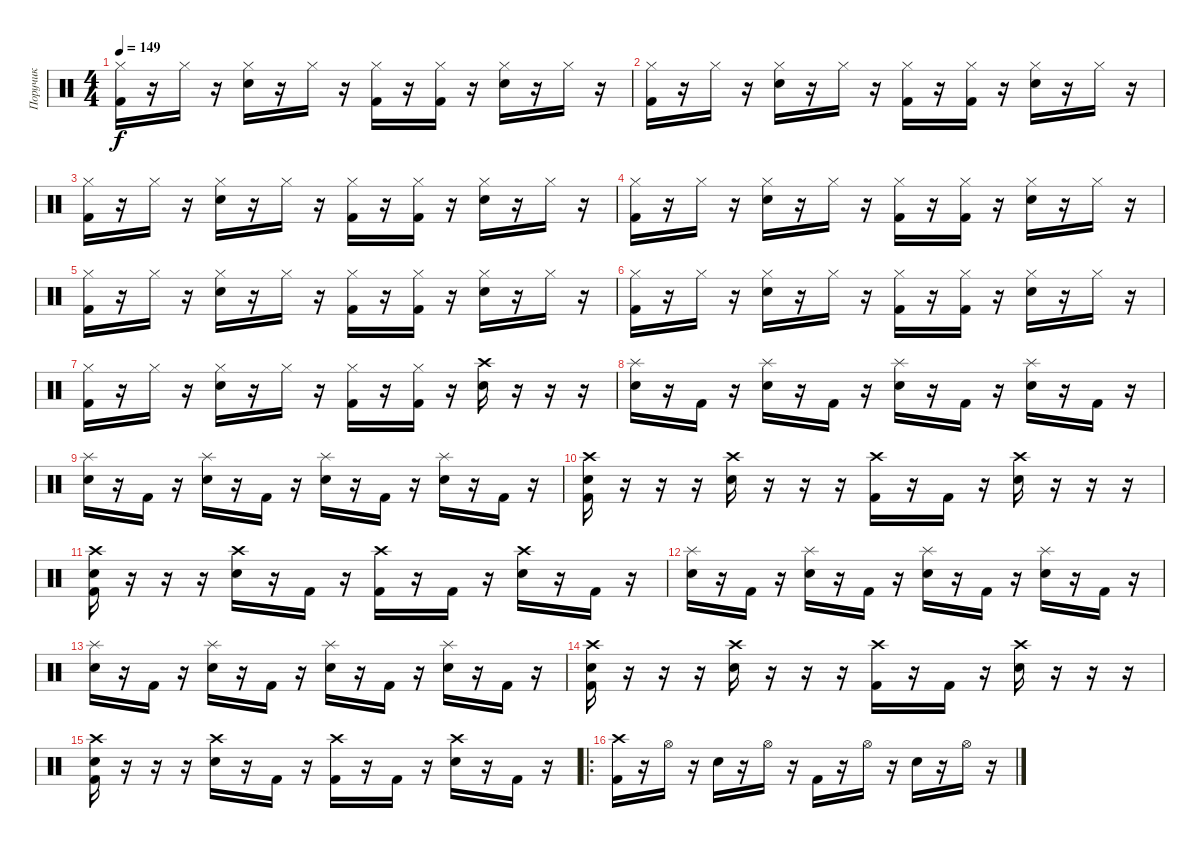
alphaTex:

\track ("Поручик" "Поручик") {instrument percussion}
\staff {score}
\articulation defaults
\ts (4 4)
\tempo 149
\clef neutral
\ks c
("Hi-Hat (closed)" "Kick (hit) 2").16{dy f} r.16 "Hi-Hat (closed)".16 r.16 ("Hi-Hat (closed)" "Snare (hit) 2").16 r.16 "Hi-Hat (closed)".16 r.16 ("Hi-Hat (closed)" "Kick (hit) 2").16 r.16 ("Hi-Hat (closed)" "Kick (hit) 2").16 r.16 ("Hi-Hat (closed)" "Snare (hit) 2").16 r.16 "Hi-Hat (closed)".16 r.16 |
("Hi-Hat (closed)" "Kick (hit) 2").16 r.16 "Hi-Hat (closed)".16 r.16 ("Hi-Hat (closed)" "Snare (hit) 2").16 r.16 "Hi-Hat (closed)".16 r.16 ("Hi-Hat (closed)" "Kick (hit) 2").16 r.16 ("Hi-Hat (closed)" "Kick (hit) 2").16 r.16 ("Hi-Hat (closed)" "Snare (hit) 2").16 r.16 "Hi-Hat (closed)".16 r.16 |
("Hi-Hat (closed)" "Kick (hit) 2").16 r.16 "Hi-Hat (closed)".16 r.16 ("Hi-Hat (closed)" "Snare (hit) 2").16 r.16 "Hi-Hat (closed)".16 r.16 ("Hi-Hat (closed)" "Kick (hit) 2").16 r.16 ("Hi-Hat (closed)" "Kick (hit) 2").16 r.16 ("Hi-Hat (closed)" "Snare (hit) 2").16 r.16 "Hi-Hat (closed)".16 r.16 |
("Hi-Hat (closed)" "Kick (hit) 2").16 r.16 "Hi-Hat (closed)".16 r.16 ("Hi-Hat (closed)" "Snare (hit) 2").16 r.16 "Hi-Hat (closed)".16 r.16 ("Hi-Hat (closed)" "Kick (hit) 2").16 r.16 ("Hi-Hat (closed)" "Kick (hit) 2").16 r.16 ("Hi-Hat (closed)" "Snare (hit) 2").16 r.16 "Hi-Hat (closed)".16 r.16 |
("Hi-Hat (closed)" "Kick (hit) 2").16 r.16 "Hi-Hat (closed)".16 r.16 ("Hi-Hat (closed)" "Snare (hit) 2").16 r.16 "Hi-Hat (closed)".16 r.16 ("Hi-Hat (closed)" "Kick (hit) 2").16 r.16 ("Hi-Hat (closed)" "Kick (hit) 2").16 r.16 ("Hi-Hat (closed)" "Snare (hit) 2").16 r.16 "Hi-Hat (closed)".16 r.16 |
("Hi-Hat (closed)" "Kick (hit) 2").16 r.16 "Hi-Hat (closed)".16 r.16 ("Hi-Hat (closed)" "Snare (hit) 2").16 r.16 "Hi-Hat (closed)".16 r.16 ("Hi-Hat (closed)" "Kick (hit) 2").16 r.16 ("Hi-Hat (closed)" "Kick (hit) 2").16 r.16 ("Hi-Hat (closed)" "Snare (hit) 2").16 r.16 "Hi-Hat (closed)".16 r.16 |
("Hi-Hat (closed)" "Kick (hit) 2").16 r.16 "Hi-Hat (closed)".16 r.16 ("Hi-Hat (closed)" "Snare (hit) 2").16 r.16 "Hi-Hat (closed)".16 r.16 ("Hi-Hat (closed)" "Kick (hit) 2").16 r.16 ("Hi-Hat (closed)" "Kick (hit) 2").16 r.16 ("Crash high (hit)" "Snare (hit) 2").16 r.16 r.16 r.16 |
("Splash (hit)" "Snare (hit) 2").16 r.16 "Kick (hit) 2".16 r.16 ("Splash (hit)" "Snare (hit) 2").16 r.16 "Kick (hit) 2".16 r.16 ("Splash (hit)" "Snare (hit) 2").16 r.16 "Kick (hit) 2".16 r.16 ("Splash (hit)" "Snare (hit) 2").16 r.16 "Kick (hit) 2".16 r.16 |
("Splash (hit)" "Snare (hit) 2").16 r.16 "Kick (hit) 2".16 r.16 ("Splash (hit)" "Snare (hit) 2").16 r.16 "Kick (hit) 2".16 r.16 ("Splash (hit)" "Snare (hit) 2").16 r.16 "Kick (hit) 2".16 r.16 ("Splash (hit)" "Snare (hit) 2").16 r.16 "Kick (hit) 2".16 r.16 |
("Crash high (hit)" "Snare (hit) 2" "Kick (hit) 2").16 r.16 r.16 r.16 ("Crash high (hit)" "Snare (hit) 2").16 r.16 r.16 r.16 ("Crash high (hit)" "Kick (hit) 2").16 r.16 "Kick (hit) 2".16 r.16 ("Crash high (hit)" "Snare (hit) 2").16 r.16 r.16 r.16 |
("Crash high (hit)" "Snare (hit) 2" "Kick (hit) 2").16 r.16 r.16 r.16 ("Crash high (hit)" "Snare (hit) 2").16 r.16 "Kick (hit) 2".16 r.16 ("Crash high (hit)" "Kick (hit) 2").16 r.16 "Kick (hit) 2".16 r.16 ("Crash high (hit)" "Snare (hit) 2").16 r.16 "Kick (hit) 2".16 r.16 |
("Splash (hit)" "Snare (hit) 2").16 r.16 "Kick (hit) 2".16 r.16 ("Splash (hit)" "Snare (hit) 2").16 r.16 "Kick (hit) 2".16 r.16 ("Splash (hit)" "Snare (hit) 2").16 r.16 "Kick (hit) 2".16 r.16 ("Splash (hit)" "Snare (hit) 2").16 r.16 "Kick (hit) 2".16 r.16 |
("Splash (hit)" "Snare (hit) 2").16 r.16 "Kick (hit) 2".16 r.16 ("Splash (hit)" "Snare (hit) 2").16 r.16 "Kick (hit) 2".16 r.16 ("Splash (hit)" "Snare (hit) 2").16 r.16 "Kick (hit) 2".16 r.16 ("Splash (hit)" "Snare (hit) 2").16 r.16 "Kick (hit) 2".16 r.16 |
("Crash high (hit)" "Snare (hit) 2" "Kick (hit) 2").16 r.16 r.16 r.16 ("Crash high (hit)" "Snare (hit) 2").16 r.16 r.16 r.16 ("Crash high (hit)" "Kick (hit) 2").16 r.16 "Kick (hit) 2".16 r.16 ("Crash high (hit)" "Snare (hit) 2").16 r.16 r.16 r.16 |
("Crash high (hit)" "Snare (hit) 2" "Kick (hit) 2").16 r.16 r.16 r.16 ("Crash high (hit)" "Snare (hit) 2").16 r.16 "Kick (hit) 2".16 r.16 ("Crash high (hit)" "Kick (hit) 2").16 r.16 "Kick (hit) 2".16 r.16 ("Crash high (hit)" "Snare (hit) 2").16 r.16 "Kick (hit) 2".16 r.16 |
\ro
("Crash high (hit)" "Kick (hit) 2").16 r.16 "Hi-Hat (open)".16 r.16 "Snare (hit) 2".16 r.16 "Hi-Hat (open)".16 r.16 "Kick (hit) 2".16 r.16 "Hi-Hat (open)".16 r.16 "Snare (hit) 2".16 r.16 "Hi-Hat (open)".16 r.16
